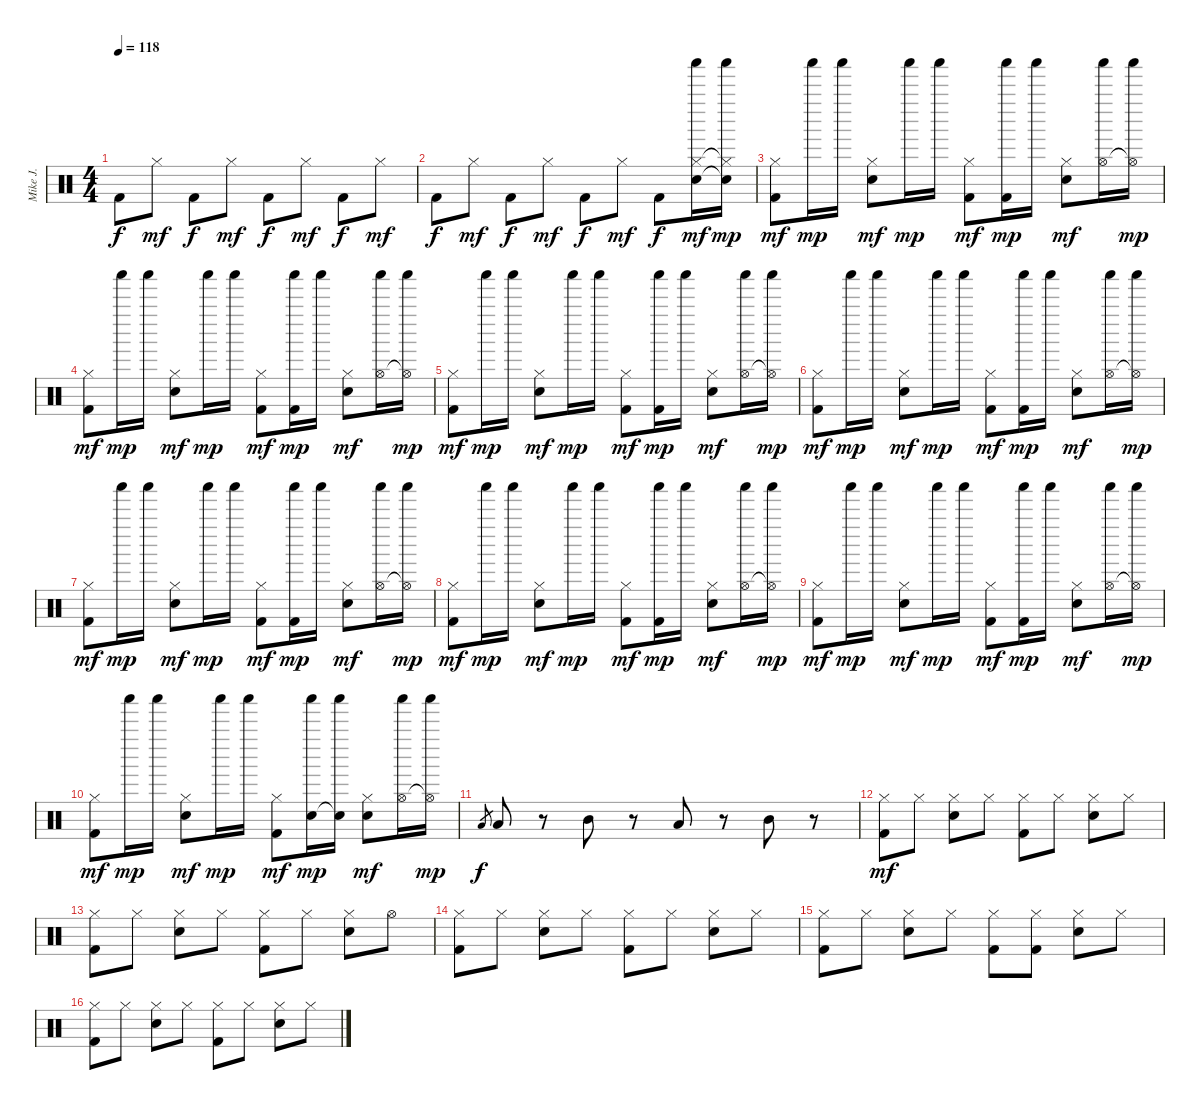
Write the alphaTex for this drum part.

\track ("Mike J." "Mike J.") {instrument percussion}
\staff {score}
\articulation defaults
\ts (4 4)
\tempo 118
\clef neutral
\ks c "Kick (hit) 2".8{dy f} "Hi-Hat (closed)".8{dy mf} "Kick (hit) 2".8{dy f} "Hi-Hat (closed)".8{dy mf} "Kick (hit) 2".8{dy f} "Hi-Hat (closed)".8{dy mf} "Kick (hit) 2".8{dy f} "Hi-Hat (closed)".8{dy mf}
|
"Kick (hit) 2".8{dy f} "Hi-Hat (closed)".8{dy mf} "Kick (hit) 2".8{dy f} "Hi-Hat (closed)".8{dy mf} "Kick (hit) 2".8{dy f} "Hi-Hat (closed)".8{dy mf} "Kick (hit) 2".8{dy f} ("Shaker (hit)" "Hi-Hat (closed)" "Electric Snare (hit)").16{dy mf} ("Shaker (hit)" "Hi-Hat (closed)"{t} "Electric Snare (hit)"{t}).16{dy mp} |
("Hi-Hat (closed)" "Kick (hit) 2").8{dy mf} "Shaker (hit)".16{dy mp} "Shaker (hit)".16 ("Hi-Hat (closed)" "Electric Snare (hit)").8{dy mf} "Shaker (hit)".16{dy mp} "Shaker (hit)".16 ("Hi-Hat (closed)" "Kick (hit) 2").8{dy mf} ("Shaker (hit)" "Kick (hit) 2").16{dy mp} "Shaker (hit)".16 ("Hi-Hat (closed)" "Electric Snare (hit)").8{dy mf} ("Shaker (hit)" "Hi-Hat (open)").16 ("Shaker (hit)" "Hi-Hat (open)"{t}).16{dy mp} |
("Hi-Hat (closed)" "Kick (hit) 2").8{dy mf} "Shaker (hit)".16{dy mp} "Shaker (hit)".16 ("Hi-Hat (closed)" "Electric Snare (hit)").8{dy mf} "Shaker (hit)".16{dy mp} "Shaker (hit)".16 ("Hi-Hat (closed)" "Kick (hit) 2").8{dy mf} ("Shaker (hit)" "Kick (hit) 2").16{dy mp} "Shaker (hit)".16 ("Hi-Hat (closed)" "Electric Snare (hit)").8{dy mf} ("Shaker (hit)" "Hi-Hat (open)").16 ("Shaker (hit)" "Hi-Hat (open)"{t}).16{dy mp} |
("Hi-Hat (closed)" "Kick (hit) 2").8{dy mf} "Shaker (hit)".16{dy mp} "Shaker (hit)".16 ("Hi-Hat (closed)" "Electric Snare (hit)").8{dy mf} "Shaker (hit)".16{dy mp} "Shaker (hit)".16 ("Hi-Hat (closed)" "Kick (hit) 2").8{dy mf} ("Shaker (hit)" "Kick (hit) 2").16{dy mp} "Shaker (hit)".16 ("Hi-Hat (closed)" "Electric Snare (hit)").8{dy mf} ("Shaker (hit)" "Hi-Hat (open)").16 ("Shaker (hit)" "Hi-Hat (open)"{t}).16{dy mp} |
("Hi-Hat (closed)" "Kick (hit) 2").8{dy mf} "Shaker (hit)".16{dy mp} "Shaker (hit)".16 ("Hi-Hat (closed)" "Electric Snare (hit)").8{dy mf} "Shaker (hit)".16{dy mp} "Shaker (hit)".16 ("Hi-Hat (closed)" "Kick (hit) 2").8{dy mf} ("Shaker (hit)" "Kick (hit) 2").16{dy mp} "Shaker (hit)".16 ("Hi-Hat (closed)" "Electric Snare (hit)").8{dy mf} ("Shaker (hit)" "Hi-Hat (open)").16 ("Shaker (hit)" "Hi-Hat (open)"{t}).16{dy mp} |
("Hi-Hat (closed)" "Kick (hit) 2").8{dy mf} "Shaker (hit)".16{dy mp} "Shaker (hit)".16 ("Hi-Hat (closed)" "Electric Snare (hit)").8{dy mf} "Shaker (hit)".16{dy mp} "Shaker (hit)".16 ("Hi-Hat (closed)" "Kick (hit) 2").8{dy mf} ("Shaker (hit)" "Kick (hit) 2").16{dy mp} "Shaker (hit)".16 ("Hi-Hat (closed)" "Electric Snare (hit)").8{dy mf} ("Shaker (hit)" "Hi-Hat (open)").16 ("Shaker (hit)" "Hi-Hat (open)"{t}).16{dy mp} |
("Hi-Hat (closed)" "Kick (hit) 2").8{dy mf} "Shaker (hit)".16{dy mp} "Shaker (hit)".16 ("Hi-Hat (closed)" "Electric Snare (hit)").8{dy mf} "Shaker (hit)".16{dy mp} "Shaker (hit)".16 ("Hi-Hat (closed)" "Kick (hit) 2").8{dy mf} ("Shaker (hit)" "Kick (hit) 2").16{dy mp} "Shaker (hit)".16 ("Hi-Hat (closed)" "Electric Snare (hit)").8{dy mf} ("Shaker (hit)" "Hi-Hat (open)").16 ("Shaker (hit)" "Hi-Hat (open)"{t}).16{dy mp} |
("Hi-Hat (closed)" "Kick (hit) 2").8{dy mf} "Shaker (hit)".16{dy mp} "Shaker (hit)".16 ("Hi-Hat (closed)" "Electric Snare (hit)").8{dy mf} "Shaker (hit)".16{dy mp} "Shaker (hit)".16 ("Hi-Hat (closed)" "Kick (hit) 2").8{dy mf} ("Shaker (hit)" "Kick (hit) 2").16{dy mp} "Shaker (hit)".16 ("Hi-Hat (closed)" "Electric Snare (hit)").8{dy mf} ("Shaker (hit)" "Hi-Hat (open)").16 ("Shaker (hit)" "Hi-Hat (open)"{t}).16{dy mp} |
("Hi-Hat (closed)" "Kick (hit) 2").8{dy mf} "Shaker (hit)".16{dy mp} "Shaker (hit)".16 ("Hi-Hat (closed)" "Electric Snare (hit)").8{dy mf} "Shaker (hit)".16{dy mp} "Shaker (hit)".16 ("Hi-Hat (closed)" "Kick (hit) 2").8{dy mf} ("Shaker (hit)" "Electric Snare (hit)").16{dy mp} ("Shaker (hit)" "Electric Snare (hit)"{t}).16 ("Hi-Hat (closed)" "Electric Snare (hit)").8{dy mf} ("Shaker (hit)" "Hi-Hat (open)").16 ("Shaker (hit)" "Hi-Hat (open)"{t}).16{dy mp} |
"Low Floor Tom (hit)".8{gr dy f} "Low Floor Tom (hit)".8 r.8 "Mid Tom (hit)".8 r.8 "Low Tom (hit)".8 r.8 "Mid Tom (hit)".8 r.8 |
("Hi-Hat (closed)" "Kick (hit) 2").8{dy mf} "Hi-Hat (closed)".8 ("Hi-Hat (closed)" "Electric Snare (hit)").8 "Hi-Hat (closed)".8 ("Hi-Hat (closed)" "Kick (hit) 2").8 "Hi-Hat (closed)".8 ("Hi-Hat (closed)" "Electric Snare (hit)").8 "Hi-Hat (closed)".8 |
("Hi-Hat (closed)" "Kick (hit) 2").8 "Hi-Hat (closed)".8 ("Hi-Hat (closed)" "Electric Snare (hit)").8 "Hi-Hat (closed)".8 ("Hi-Hat (closed)" "Kick (hit) 2").8 "Hi-Hat (closed)".8 ("Hi-Hat (closed)" "Electric Snare (hit)").8 "Hi-Hat (open)".8 |
("Hi-Hat (closed)" "Kick (hit) 2").8 "Hi-Hat (closed)".8 ("Hi-Hat (closed)" "Electric Snare (hit)").8 "Hi-Hat (closed)".8 ("Hi-Hat (closed)" "Kick (hit) 2").8 "Hi-Hat (closed)".8 ("Hi-Hat (closed)" "Electric Snare (hit)").8 "Hi-Hat (closed)".8 |
("Hi-Hat (closed)" "Kick (hit) 2").8 "Hi-Hat (closed)".8 ("Hi-Hat (closed)" "Electric Snare (hit)").8 "Hi-Hat (closed)".8 ("Hi-Hat (closed)" "Kick (hit) 2").8 ("Hi-Hat (closed)" "Kick (hit) 2").8 ("Hi-Hat (closed)" "Electric Snare (hit)").8 "Hi-Hat (closed)".8 |
("Hi-Hat (closed)" "Kick (hit) 2").8 "Hi-Hat (closed)".8 ("Hi-Hat (closed)" "Electric Snare (hit)").8 "Hi-Hat (closed)".8 ("Hi-Hat (closed)" "Kick (hit) 2").8 "Hi-Hat (closed)".8 ("Hi-Hat (closed)" "Electric Snare (hit)").8 "Hi-Hat (closed)".8
